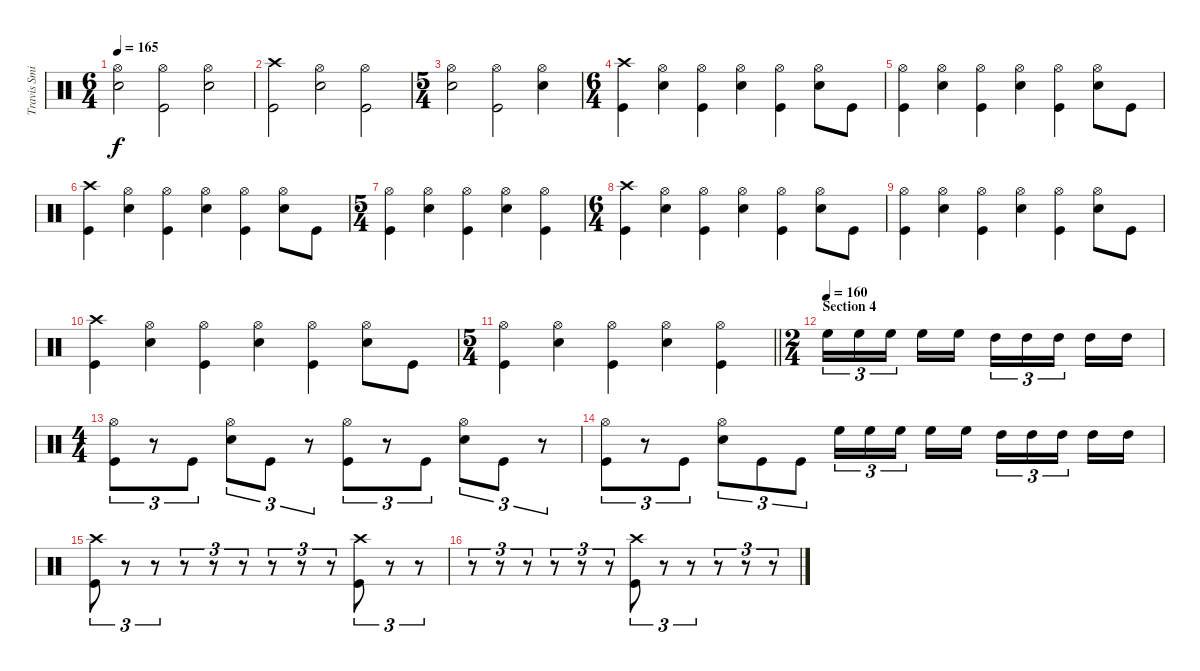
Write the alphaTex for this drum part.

\track ("Travis Smith" "Travis Smi") {instrument percussion}
\staff {score}
\articulation defaults
\ts (6 4)
\tempo 165
\clef neutral
\ks c
("Hi-Hat (open)" "Electric Snare (hit)").2{dy f} ("Hi-Hat (open)" "Kick (hit)").2 ("Hi-Hat (open)" "Electric Snare (hit)").2 |
("Crash high (hit)" "Kick (hit)").2 ("Hi-Hat (open)" "Electric Snare (hit)").2 ("Hi-Hat (open)" "Kick (hit)").2 |
\ts (5 4)
("Hi-Hat (open)" "Electric Snare (hit)").2 ("Hi-Hat (open)" "Kick (hit)").2 ("Hi-Hat (open)" "Electric Snare (hit)").4 |
\ts (6 4)
("Crash high (hit)" "Kick (hit)").4 ("Hi-Hat (open)" "Electric Snare (hit)").4 ("Hi-Hat (open)" "Kick (hit)").4 ("Hi-Hat (open)" "Electric Snare (hit)").4 ("Hi-Hat (open)" "Kick (hit)").4 ("Hi-Hat (open)" "Electric Snare (hit)").8 "Kick (hit)".8 |
("Hi-Hat (open)" "Kick (hit)").4 ("Hi-Hat (open)" "Electric Snare (hit)").4 ("Hi-Hat (open)" "Kick (hit)").4 ("Hi-Hat (open)" "Electric Snare (hit)").4 ("Hi-Hat (open)" "Kick (hit)").4 ("Hi-Hat (open)" "Electric Snare (hit)").8 "Kick (hit)".8 |
("Crash high (hit)" "Kick (hit)").4 ("Hi-Hat (open)" "Electric Snare (hit)").4 ("Hi-Hat (open)" "Kick (hit)").4 ("Hi-Hat (open)" "Electric Snare (hit)").4 ("Hi-Hat (open)" "Kick (hit)").4 ("Hi-Hat (open)" "Electric Snare (hit)").8 "Kick (hit)".8 |
\ts (5 4)
("Hi-Hat (open)" "Kick (hit)").4 ("Hi-Hat (open)" "Electric Snare (hit)").4 ("Hi-Hat (open)" "Kick (hit)").4 ("Hi-Hat (open)" "Electric Snare (hit)").4 ("Hi-Hat (open)" "Kick (hit)").4 |
\ts (6 4)
("Crash high (hit)" "Kick (hit)").4 ("Hi-Hat (open)" "Electric Snare (hit)").4 ("Hi-Hat (open)" "Kick (hit)").4 ("Hi-Hat (open)" "Electric Snare (hit)").4 ("Hi-Hat (open)" "Kick (hit)").4 ("Hi-Hat (open)" "Electric Snare (hit)").8 "Kick (hit)".8 |
("Hi-Hat (open)" "Kick (hit)").4 ("Hi-Hat (open)" "Electric Snare (hit)").4 ("Hi-Hat (open)" "Kick (hit)").4 ("Hi-Hat (open)" "Electric Snare (hit)").4 ("Hi-Hat (open)" "Kick (hit)").4 ("Hi-Hat (open)" "Electric Snare (hit)").8 "Kick (hit)".8 |
("Crash high (hit)" "Kick (hit)").4 ("Hi-Hat (open)" "Electric Snare (hit)").4 ("Hi-Hat (open)" "Kick (hit)").4 ("Hi-Hat (open)" "Electric Snare (hit)").4 ("Hi-Hat (open)" "Kick (hit)").4 ("Hi-Hat (open)" "Electric Snare (hit)").8 "Kick (hit)".8 |
\ts (5 4)
\barLineRight lightlight
("Hi-Hat (open)" "Kick (hit)").4 ("Hi-Hat (open)" "Electric Snare (hit)").4 ("Hi-Hat (open)" "Kick (hit)").4 ("Hi-Hat (open)" "Electric Snare (hit)").4 ("Hi-Hat (open)" "Kick (hit)").4 |
\ts (2 4)
\section ("" "Section 4")
\tempo (160)
"High Floor Tom (hit)".16{tu (3 2)} "High Floor Tom (hit)".16{tu (3 2)} "High Floor Tom (hit)".16{tu (3 2) beam splitsecondary} "High Floor Tom (hit)".16 "High Floor Tom (hit)".16 "High Tom (hit)".16{tu (3 2)} "High Tom (hit)".16{tu (3 2)} "High Tom (hit)".16{tu (3 2) beam splitsecondary} "High Tom (hit)".16 "High Tom (hit)".16 |
\ts (4 4)
("Hi-Hat (open)" "Kick (hit)").8{tu (3 2)} r.8{tu (3 2)} "Kick (hit)".8{tu (3 2)} ("Hi-Hat (open)" "Electric Snare (hit)").8{tu (3 2)} "Kick (hit)".8{tu (3 2)} r.8{tu (3 2)} ("Hi-Hat (open)" "Kick (hit)").8{tu (3 2)} r.8{tu (3 2)} "Kick (hit)".8{tu (3 2)} ("Hi-Hat (open)" "Electric Snare (hit)").8{tu (3 2)} "Kick (hit)".8{tu (3 2)} r.8{tu (3 2)} |
("Hi-Hat (open)" "Kick (hit)").8{tu (3 2)} r.8{tu (3 2)} "Kick (hit)".8{tu (3 2)} ("Hi-Hat (open)" "Electric Snare (hit)").8{tu (3 2)} "Kick (hit)".8{tu (3 2)} "Kick (hit)".8{tu (3 2)} "High Floor Tom (hit)".16{tu (3 2)} "High Floor Tom (hit)".16{tu (3 2)} "High Floor Tom (hit)".16{tu (3 2) beam splitsecondary} "High Floor Tom (hit)".16 "High Floor Tom (hit)".16 "High Tom (hit)".16{tu (3 2)} "High Tom (hit)".16{tu (3 2)} "High Tom (hit)".16{tu (3 2) beam splitsecondary} "High Tom (hit)".16 "High Tom (hit)".16 |
("Crash high (hit)" "Kick (hit)").8{tu (3 2)} r.8{tu (3 2)} r.8{tu (3 2)} r.8{tu (3 2)} r.8{tu (3 2)} r.8{tu (3 2)} r.8{tu (3 2)} r.8{tu (3 2)} r.8{tu (3 2)} ("Crash high (hit)" "Kick (hit)").8{tu (3 2)} r.8{tu (3 2)} r.8{tu (3 2)} |
r.8{tu (3 2)} r.8{tu (3 2)} r.8{tu (3 2)} r.8{tu (3 2)} r.8{tu (3 2)} r.8{tu (3 2)} ("Crash high (hit)" "Kick (hit)").8{tu (3 2)} r.8{tu (3 2)} r.8{tu (3 2)} r.8{tu (3 2)} r.8{tu (3 2)} r.8{tu (3 2)}
